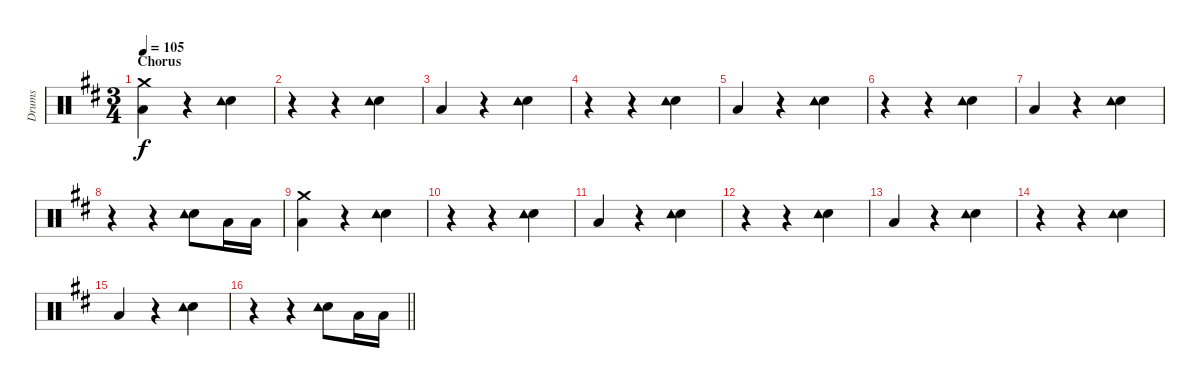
\track ("Drums" "Drums") {instrument percussion}
\staff {score}
\articulation defaults
\ts (3 4)
\section ("" "Chorus")
\tempo 105
\clef neutral
\ks d
("Crash medium (hit)" "Low Floor Tom (hit)").4{dy f} r.4 ("Snare (hit) 2" "Tambourine (hit)").4 |
r.4 r.4 ("Snare (hit) 2" "Tambourine (hit)").4 |
"Low Floor Tom (hit)".4 r.4 ("Snare (hit) 2" "Tambourine (hit)").4 |
r.4 r.4 ("Snare (hit) 2" "Tambourine (hit)").4 |
"Low Floor Tom (hit)".4 r.4 ("Snare (hit) 2" "Tambourine (hit)").4 |
r.4 r.4 ("Snare (hit) 2" "Tambourine (hit)").4 |
"Low Floor Tom (hit)".4 r.4 ("Snare (hit) 2" "Tambourine (hit)").4 |
r.4 r.4 ("Snare (hit) 2" "Tambourine (hit)").8 "Low Floor Tom (hit)".16 "Low Floor Tom (hit)".16 |
("Crash medium (hit)" "Low Floor Tom (hit)").4 r.4 ("Snare (hit) 2" "Tambourine (hit)").4 |
r.4 r.4 ("Snare (hit) 2" "Tambourine (hit)").4 |
"Low Floor Tom (hit)".4 r.4 ("Snare (hit) 2" "Tambourine (hit)").4 |
r.4 r.4 ("Snare (hit) 2" "Tambourine (hit)").4 |
"Low Floor Tom (hit)".4 r.4 ("Snare (hit) 2" "Tambourine (hit)").4 |
r.4 r.4 ("Snare (hit) 2" "Tambourine (hit)").4 |
"Low Floor Tom (hit)".4 r.4 ("Snare (hit) 2" "Tambourine (hit)").4 |
\barLineRight lightlight
r.4 r.4 ("Snare (hit) 2" "Tambourine (hit)").8 "Low Floor Tom (hit)".16 "Low Floor Tom (hit)".16
